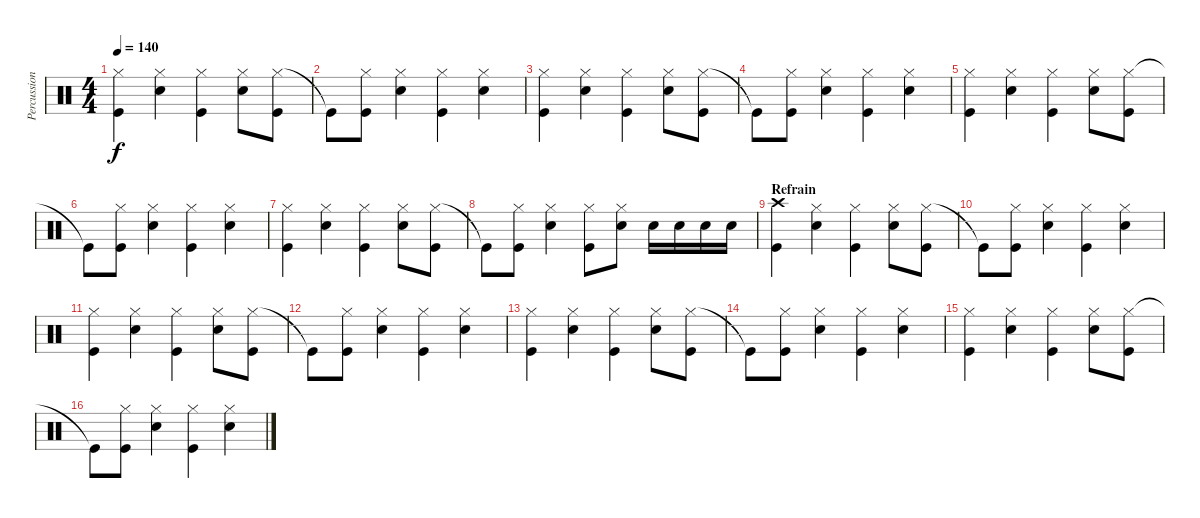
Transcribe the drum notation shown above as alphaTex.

\track ("Percussion" "Percussion") {instrument percussion}
\staff {score}
\articulation defaults
\ts (4 4)
\tempo 140
\clef neutral
\ks c
("Hi-Hat (closed)" "Kick (hit)").4{dy f} ("Hi-Hat (closed)" "Snare (hit) 2").4 ("Hi-Hat (closed)" "Kick (hit)").4 ("Hi-Hat (closed)" "Snare (hit) 2").8 ("Hi-Hat (closed)" "Kick (hit)").8 |
"Kick (hit)"{t}.8 ("Hi-Hat (closed)" "Kick (hit)").8 ("Hi-Hat (closed)" "Snare (hit) 2").4 ("Hi-Hat (closed)" "Kick (hit)").4 ("Hi-Hat (closed)" "Snare (hit) 2").4 |
("Hi-Hat (closed)" "Kick (hit)").4 ("Hi-Hat (closed)" "Snare (hit) 2").4 ("Hi-Hat (closed)" "Kick (hit)").4 ("Hi-Hat (closed)" "Snare (hit) 2").8 ("Hi-Hat (closed)" "Kick (hit)").8 |
"Kick (hit)"{t}.8 ("Hi-Hat (closed)" "Kick (hit)").8 ("Hi-Hat (closed)" "Snare (hit) 2").4 ("Hi-Hat (closed)" "Kick (hit)").4 ("Hi-Hat (closed)" "Snare (hit) 2").4 |
("Hi-Hat (closed)" "Kick (hit)").4 ("Hi-Hat (closed)" "Snare (hit) 2").4 ("Hi-Hat (closed)" "Kick (hit)").4 ("Hi-Hat (closed)" "Snare (hit) 2").8 ("Hi-Hat (closed)" "Kick (hit)").8 |
"Kick (hit)"{t}.8 ("Hi-Hat (closed)" "Kick (hit)").8 ("Hi-Hat (closed)" "Snare (hit) 2").4 ("Hi-Hat (closed)" "Kick (hit)").4 ("Hi-Hat (closed)" "Snare (hit) 2").4 |
("Hi-Hat (closed)" "Kick (hit)").4 ("Hi-Hat (closed)" "Snare (hit) 2").4 ("Hi-Hat (closed)" "Kick (hit)").4 ("Hi-Hat (closed)" "Snare (hit) 2").8 ("Hi-Hat (closed)" "Kick (hit)").8 |
"Kick (hit)"{t}.8 ("Hi-Hat (closed)" "Kick (hit)").8 ("Hi-Hat (closed)" "Snare (hit) 2").4 ("Hi-Hat (closed)" "Kick (hit)").8 ("Hi-Hat (closed)" "Snare (hit) 2").8 "Snare (hit) 2".16 "Snare (hit) 2".16 "Snare (hit) 2".16 "Snare (hit) 2".16 |
\section ("" "Refrain")
("Crash high (hit)" "Kick (hit)").4 ("Hi-Hat (closed)" "Snare (hit) 2").4 ("Hi-Hat (closed)" "Kick (hit)").4 ("Hi-Hat (closed)" "Snare (hit) 2").8 ("Hi-Hat (closed)" "Kick (hit)").8 |
"Kick (hit)"{t}.8 ("Hi-Hat (closed)" "Kick (hit)").8 ("Hi-Hat (closed)" "Snare (hit) 2").4 ("Hi-Hat (closed)" "Kick (hit)").4 ("Hi-Hat (closed)" "Snare (hit) 2").4 |
("Hi-Hat (closed)" "Kick (hit)").4 ("Hi-Hat (closed)" "Snare (hit) 2").4 ("Hi-Hat (closed)" "Kick (hit)").4 ("Hi-Hat (closed)" "Snare (hit) 2").8 ("Hi-Hat (closed)" "Kick (hit)").8 |
"Kick (hit)"{t}.8 ("Hi-Hat (closed)" "Kick (hit)").8 ("Hi-Hat (closed)" "Snare (hit) 2").4 ("Hi-Hat (closed)" "Kick (hit)").4 ("Hi-Hat (closed)" "Snare (hit) 2").4 |
("Hi-Hat (closed)" "Kick (hit)").4 ("Hi-Hat (closed)" "Snare (hit) 2").4 ("Hi-Hat (closed)" "Kick (hit)").4 ("Hi-Hat (closed)" "Snare (hit) 2").8 ("Hi-Hat (closed)" "Kick (hit)").8 |
"Kick (hit)"{t}.8 ("Hi-Hat (closed)" "Kick (hit)").8 ("Hi-Hat (closed)" "Snare (hit) 2").4 ("Hi-Hat (closed)" "Kick (hit)").4 ("Hi-Hat (closed)" "Snare (hit) 2").4 |
("Hi-Hat (closed)" "Kick (hit)").4 ("Hi-Hat (closed)" "Snare (hit) 2").4 ("Hi-Hat (closed)" "Kick (hit)").4 ("Hi-Hat (closed)" "Snare (hit) 2").8 ("Hi-Hat (closed)" "Kick (hit)").8 |
"Kick (hit)"{t}.8 ("Hi-Hat (closed)" "Kick (hit)").8 ("Hi-Hat (closed)" "Snare (hit) 2").4 ("Hi-Hat (closed)" "Kick (hit)").4 ("Hi-Hat (closed)" "Snare (hit) 2").4
